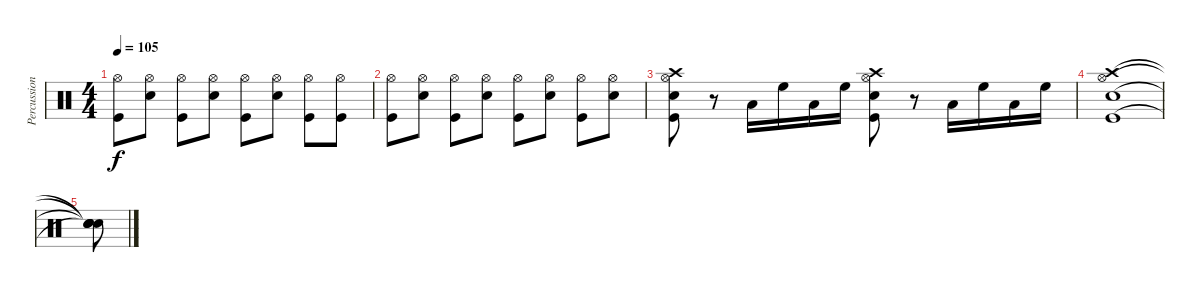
\track ("Percussion" "Percussion") {instrument percussion}
\staff {score}
\articulation defaults
\ts (4 4)
\tempo 105
\clef neutral
\ks c
("Hi-Hat (open)" "Kick (hit)").8{dy f} ("Hi-Hat (open)" "Snare (hit) 2").8 ("Hi-Hat (open)" "Kick (hit)").8 ("Hi-Hat (open)" "Snare (hit) 2").8 ("Hi-Hat (open)" "Kick (hit)").8 ("Hi-Hat (open)" "Snare (hit) 2").8 ("Hi-Hat (open)" "Kick (hit)").8 ("Hi-Hat (open)" "Kick (hit)").8 |
("Hi-Hat (open)" "Kick (hit)").8 ("Hi-Hat (open)" "Snare (hit) 2").8 ("Hi-Hat (open)" "Kick (hit)").8 ("Hi-Hat (open)" "Snare (hit) 2").8 ("Hi-Hat (open)" "Kick (hit)").8 ("Hi-Hat (open)" "Snare (hit) 2").8 ("Hi-Hat (open)" "Kick (hit)").8 ("Hi-Hat (open)" "Snare (hit) 2").8 |
("Hi-Hat (open)" "Kick (hit)" "Snare (hit) 2" "Crash high (hit)").8 r.8 "Low Tom (hit)".16 "High Floor Tom (hit)".16 "Low Floor Tom (hit)".16 "High Floor Tom (hit)".16 ("Hi-Hat (open)" "Kick (hit)" "Snare (hit) 2" "Crash high (hit)").8 r.8 "Low Tom (hit)".16 "High Floor Tom (hit)".16 "Low Floor Tom (hit)".16 "High Floor Tom (hit)".16 |
("Hi-Hat (open)" "Kick (hit)" "Snare (hit) 2" "Crash high (hit)").1 |
("Snare (hit)"{t} "Snare (hit)"{t} "Snare (hit)"{t} "Snare (hit)"{t}).8
